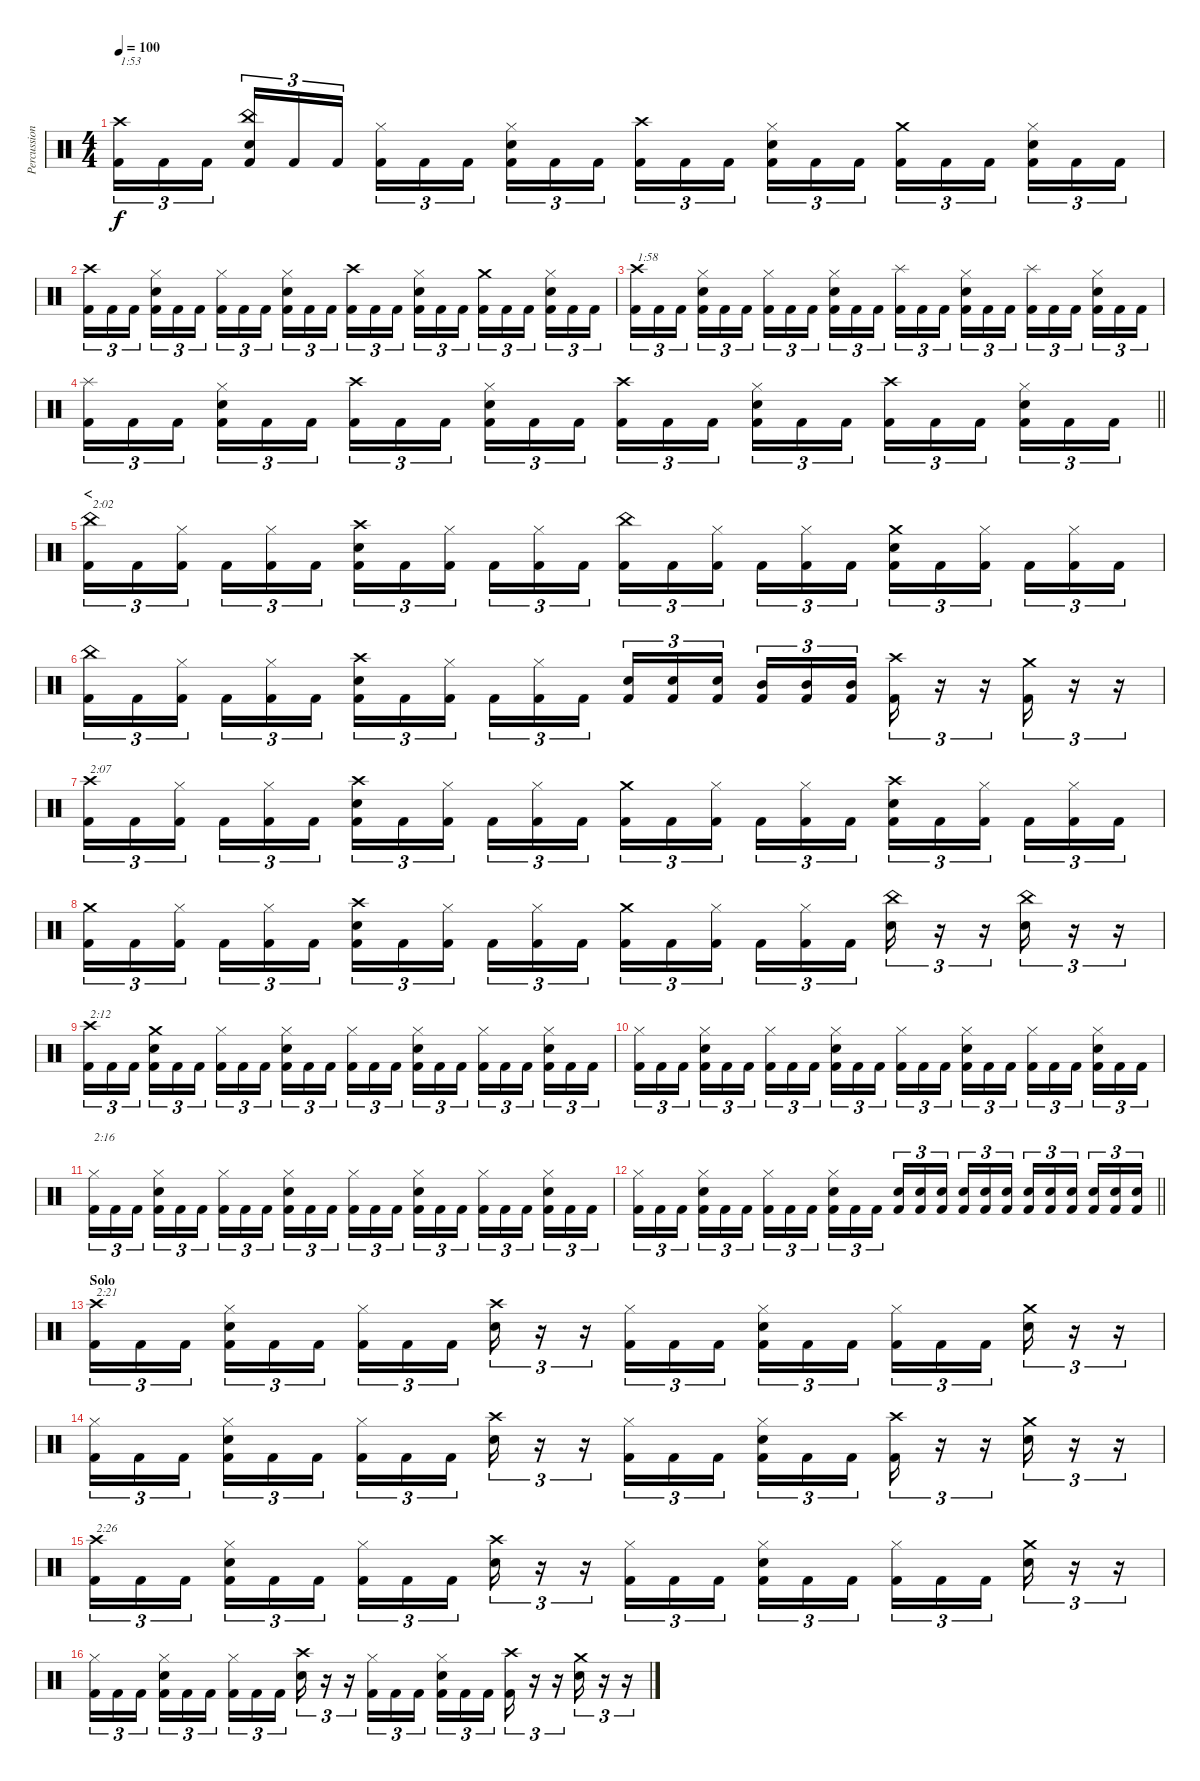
\track ("Percussion" "Percussion") {instrument percussion}
\staff {score}
\articulation defaults
\ts (4 4)
\tempo 100
\clef neutral
\ks c
("Crash high (hit)" "Kick (hit) 2").16{tu (3 2) txt "1:53" dy f} "Kick (hit) 2".16{tu (3 2)} "Kick (hit) 2".16{tu (3 2) beam splitsecondary} ("China (hit)" "Snare (hit) 2" "Kick (hit) 2").16{tu (3 2)} "Kick (hit) 2".16{tu (3 2)} "Kick (hit) 2".16{tu (3 2)} ("Hi-Hat (closed)" "Kick (hit) 2").16{tu (3 2)} "Kick (hit) 2".16{tu (3 2)} "Kick (hit) 2".16{tu (3 2) beam splitsecondary} ("Hi-Hat (closed)" "Snare (hit) 2" "Kick (hit) 2").16{tu (3 2)} "Kick (hit) 2".16{tu (3 2)} "Kick (hit) 2".16{tu (3 2)} ("Crash high (hit)" "Kick (hit) 2").16{tu (3 2)} "Kick (hit) 2".16{tu (3 2)} "Kick (hit) 2".16{tu (3 2) beam splitsecondary} ("Hi-Hat (closed)" "Snare (hit) 2" "Kick (hit) 2").16{tu (3 2)} "Kick (hit) 2".16{tu (3 2)} "Kick (hit) 2".16{tu (3 2)} ("Crash medium (hit)" "Kick (hit) 2").16{tu (3 2)} "Kick (hit) 2".16{tu (3 2)} "Kick (hit) 2".16{tu (3 2) beam splitsecondary} ("Hi-Hat (closed)" "Snare (hit) 2" "Kick (hit) 2").16{tu (3 2)} "Kick (hit) 2".16{tu (3 2)} "Kick (hit) 2".16{tu (3 2)} |
("Crash high (hit)" "Kick (hit) 2").16{tu (3 2)} "Kick (hit) 2".16{tu (3 2)} "Kick (hit) 2".16{tu (3 2) beam splitsecondary} ("Hi-Hat (closed)" "Snare (hit) 2" "Kick (hit) 2").16{tu (3 2)} "Kick (hit) 2".16{tu (3 2)} "Kick (hit) 2".16{tu (3 2)} ("Hi-Hat (closed)" "Kick (hit) 2").16{tu (3 2)} "Kick (hit) 2".16{tu (3 2)} "Kick (hit) 2".16{tu (3 2) beam splitsecondary} ("Hi-Hat (closed)" "Snare (hit) 2" "Kick (hit) 2").16{tu (3 2)} "Kick (hit) 2".16{tu (3 2)} "Kick (hit) 2".16{tu (3 2)} ("Crash high (hit)" "Kick (hit) 2").16{tu (3 2)} "Kick (hit) 2".16{tu (3 2)} "Kick (hit) 2".16{tu (3 2) beam splitsecondary} ("Hi-Hat (closed)" "Snare (hit) 2" "Kick (hit) 2").16{tu (3 2)} "Kick (hit) 2".16{tu (3 2)} "Kick (hit) 2".16{tu (3 2)} ("Crash medium (hit)" "Kick (hit) 2").16{tu (3 2)} "Kick (hit) 2".16{tu (3 2)} "Kick (hit) 2".16{tu (3 2) beam splitsecondary} ("Hi-Hat (closed)" "Snare (hit) 2" "Kick (hit) 2").16{tu (3 2)} "Kick (hit) 2".16{tu (3 2)} "Kick (hit) 2".16{tu (3 2)} |
("Crash high (hit)" "Kick (hit) 2").16{tu (3 2) txt "1:58"} "Kick (hit) 2".16{tu (3 2)} "Kick (hit) 2".16{tu (3 2) beam splitsecondary} ("Hi-Hat (closed)" "Snare (hit) 2" "Kick (hit) 2").16{tu (3 2)} "Kick (hit) 2".16{tu (3 2)} "Kick (hit) 2".16{tu (3 2)} ("Hi-Hat (closed)" "Kick (hit) 2").16{tu (3 2)} "Kick (hit) 2".16{tu (3 2)} "Kick (hit) 2".16{tu (3 2) beam splitsecondary} ("Hi-Hat (closed)" "Snare (hit) 2" "Kick (hit) 2").16{tu (3 2)} "Kick (hit) 2".16{tu (3 2)} "Kick (hit) 2".16{tu (3 2)} ("Splash (hit)" "Kick (hit) 2").16{tu (3 2)} "Kick (hit) 2".16{tu (3 2)} "Kick (hit) 2".16{tu (3 2) beam splitsecondary} ("Hi-Hat (closed)" "Snare (hit) 2" "Kick (hit) 2").16{tu (3 2)} "Kick (hit) 2".16{tu (3 2)} "Kick (hit) 2".16{tu (3 2)} ("Splash (hit)" "Kick (hit) 2").16{tu (3 2)} "Kick (hit) 2".16{tu (3 2)} "Kick (hit) 2".16{tu (3 2) beam splitsecondary} ("Hi-Hat (closed)" "Snare (hit) 2" "Kick (hit) 2").16{tu (3 2)} "Kick (hit) 2".16{tu (3 2)} "Kick (hit) 2".16{tu (3 2)} |
\barLineRight lightlight
("Splash (hit)" "Kick (hit) 2").16{tu (3 2)} "Kick (hit) 2".16{tu (3 2)} "Kick (hit) 2".16{tu (3 2) beam splitsecondary} ("Hi-Hat (closed)" "Snare (hit) 2" "Kick (hit) 2").16{tu (3 2)} "Kick (hit) 2".16{tu (3 2)} "Kick (hit) 2".16{tu (3 2)} ("Crash high (hit)" "Kick (hit) 2").16{tu (3 2)} "Kick (hit) 2".16{tu (3 2)} "Kick (hit) 2".16{tu (3 2) beam splitsecondary} ("Hi-Hat (closed)" "Snare (hit) 2" "Kick (hit) 2").16{tu (3 2)} "Kick (hit) 2".16{tu (3 2)} "Kick (hit) 2".16{tu (3 2)} ("Crash high (hit)" "Kick (hit) 2").16{tu (3 2)} "Kick (hit) 2".16{tu (3 2)} "Kick (hit) 2".16{tu (3 2) beam splitsecondary} ("Hi-Hat (closed)" "Snare (hit) 2" "Kick (hit) 2").16{tu (3 2)} "Kick (hit) 2".16{tu (3 2)} "Kick (hit) 2".16{tu (3 2)} ("Crash high (hit)" "Kick (hit) 2").16{tu (3 2)} "Kick (hit) 2".16{tu (3 2)} "Kick (hit) 2".16{tu (3 2) beam splitsecondary} ("Hi-Hat (closed)" "Snare (hit) 2" "Kick (hit) 2").16{tu (3 2)} "Kick (hit) 2".16{tu (3 2)} "Kick (hit) 2".16{tu (3 2)} |
\section ("" "<")
("China (hit)" "Kick (hit) 2").16{tu (3 2) txt "2:02"} "Kick (hit) 2".16{tu (3 2)} ("Hi-Hat (closed)" "Kick (hit) 2").16{tu (3 2) beam splitsecondary} "Kick (hit) 2".16{tu (3 2)} ("Hi-Hat (closed)" "Kick (hit) 2").16{tu (3 2)} "Kick (hit) 2".16{tu (3 2)} ("Crash high (hit)" "Snare (hit) 2" "Kick (hit) 2").16{tu (3 2)} "Kick (hit) 2".16{tu (3 2)} ("Hi-Hat (closed)" "Kick (hit) 2").16{tu (3 2) beam splitsecondary} "Kick (hit) 2".16{tu (3 2)} ("Hi-Hat (closed)" "Kick (hit) 2").16{tu (3 2)} "Kick (hit) 2".16{tu (3 2)} ("China (hit)" "Kick (hit) 2").16{tu (3 2)} "Kick (hit) 2".16{tu (3 2)} ("Hi-Hat (closed)" "Kick (hit) 2").16{tu (3 2) beam splitsecondary} "Kick (hit) 2".16{tu (3 2)} ("Hi-Hat (closed)" "Kick (hit) 2").16{tu (3 2)} "Kick (hit) 2".16{tu (3 2)} ("Crash medium (hit)" "Snare (hit) 2" "Kick (hit) 2").16{tu (3 2)} "Kick (hit) 2".16{tu (3 2)} ("Hi-Hat (closed)" "Kick (hit) 2").16{tu (3 2) beam splitsecondary} "Kick (hit) 2".16{tu (3 2)} ("Hi-Hat (closed)" "Kick (hit) 2").16{tu (3 2)} "Kick (hit) 2".16{tu (3 2)} |
("China (hit)" "Kick (hit) 2").16{tu (3 2)} "Kick (hit) 2".16{tu (3 2)} ("Hi-Hat (closed)" "Kick (hit) 2").16{tu (3 2) beam splitsecondary} "Kick (hit) 2".16{tu (3 2)} ("Hi-Hat (closed)" "Kick (hit) 2").16{tu (3 2)} "Kick (hit) 2".16{tu (3 2)} ("Crash high (hit)" "Snare (hit) 2" "Kick (hit) 2").16{tu (3 2)} "Kick (hit) 2".16{tu (3 2)} ("Hi-Hat (closed)" "Kick (hit) 2").16{tu (3 2) beam splitsecondary} "Kick (hit) 2".16{tu (3 2)} ("Hi-Hat (closed)" "Kick (hit) 2").16{tu (3 2)} "Kick (hit) 2".16{tu (3 2)} ("Snare (hit) 2" "Kick (hit) 2").16{tu (3 2)} ("Snare (hit) 2" "Kick (hit) 2").16{tu (3 2)} ("Snare (hit) 2" "Kick (hit) 2").16{tu (3 2) beam splitsecondary} ("Mid Tom (hit)" "Kick (hit) 2").16{tu (3 2)} ("Mid Tom (hit)" "Kick (hit) 2").16{tu (3 2)} ("Mid Tom (hit)" "Kick (hit) 2").16{tu (3 2)} ("Crash high (hit)" "Kick (hit) 2").16{tu (3 2)} r.16{tu (3 2)} r.16{tu (3 2)} ("Crash medium (hit)" "Kick (hit) 2").16{tu (3 2)} r.16{tu (3 2)} r.16{tu (3 2)} |
("Crash high (hit)" "Kick (hit) 2").16{tu (3 2) txt "2:07"} "Kick (hit) 2".16{tu (3 2)} ("Hi-Hat (closed)" "Kick (hit) 2").16{tu (3 2) beam splitsecondary} "Kick (hit) 2".16{tu (3 2)} ("Hi-Hat (closed)" "Kick (hit) 2").16{tu (3 2)} "Kick (hit) 2".16{tu (3 2)} ("Crash high (hit)" "Snare (hit) 2" "Kick (hit) 2").16{tu (3 2)} "Kick (hit) 2".16{tu (3 2)} ("Hi-Hat (closed)" "Kick (hit) 2").16{tu (3 2) beam splitsecondary} "Kick (hit) 2".16{tu (3 2)} ("Hi-Hat (closed)" "Kick (hit) 2").16{tu (3 2)} "Kick (hit) 2".16{tu (3 2)} ("Crash medium (hit)" "Kick (hit) 2").16{tu (3 2)} "Kick (hit) 2".16{tu (3 2)} ("Hi-Hat (closed)" "Kick (hit) 2").16{tu (3 2) beam splitsecondary} "Kick (hit) 2".16{tu (3 2)} ("Hi-Hat (closed)" "Kick (hit) 2").16{tu (3 2)} "Kick (hit) 2".16{tu (3 2)} ("Crash high (hit)" "Snare (hit) 2" "Kick (hit) 2").16{tu (3 2)} "Kick (hit) 2".16{tu (3 2)} ("Hi-Hat (closed)" "Kick (hit) 2").16{tu (3 2) beam splitsecondary} "Kick (hit) 2".16{tu (3 2)} ("Hi-Hat (closed)" "Kick (hit) 2").16{tu (3 2)} "Kick (hit) 2".16{tu (3 2)} |
("Crash medium (hit)" "Kick (hit) 2").16{tu (3 2)} "Kick (hit) 2".16{tu (3 2)} ("Hi-Hat (closed)" "Kick (hit) 2").16{tu (3 2) beam splitsecondary} "Kick (hit) 2".16{tu (3 2)} ("Hi-Hat (closed)" "Kick (hit) 2").16{tu (3 2)} "Kick (hit) 2".16{tu (3 2)} ("Crash high (hit)" "Snare (hit) 2" "Kick (hit) 2").16{tu (3 2)} "Kick (hit) 2".16{tu (3 2)} ("Hi-Hat (closed)" "Kick (hit) 2").16{tu (3 2) beam splitsecondary} "Kick (hit) 2".16{tu (3 2)} ("Hi-Hat (closed)" "Kick (hit) 2").16{tu (3 2)} "Kick (hit) 2".16{tu (3 2)} ("Crash medium (hit)" "Kick (hit) 2").16{tu (3 2)} "Kick (hit) 2".16{tu (3 2)} ("Hi-Hat (closed)" "Kick (hit) 2").16{tu (3 2) beam splitsecondary} "Kick (hit) 2".16{tu (3 2)} ("Hi-Hat (closed)" "Kick (hit) 2").16{tu (3 2)} "Kick (hit) 2".16{tu (3 2)} ("China (hit)" "Snare (hit) 2").16{tu (3 2)} r.16{tu (3 2)} r.16{tu (3 2)} ("China (hit)" "Snare (hit) 2").16{tu (3 2)} r.16{tu (3 2)} r.16{tu (3 2)} |
("Crash high (hit)" "Kick (hit) 2").16{tu (3 2) txt "2:12"} "Kick (hit) 2".16{tu (3 2)} "Kick (hit) 2".16{tu (3 2) beam splitsecondary} ("Crash medium (hit)" "Snare (hit) 2" "Kick (hit) 2").16{tu (3 2)} "Kick (hit) 2".16{tu (3 2)} "Kick (hit) 2".16{tu (3 2)} ("Hi-Hat (closed)" "Kick (hit) 2").16{tu (3 2)} "Kick (hit) 2".16{tu (3 2)} "Kick (hit) 2".16{tu (3 2) beam splitsecondary} ("Hi-Hat (closed)" "Snare (hit) 2" "Kick (hit) 2").16{tu (3 2)} "Kick (hit) 2".16{tu (3 2)} "Kick (hit) 2".16{tu (3 2)} ("Hi-Hat (closed)" "Kick (hit) 2").16{tu (3 2)} "Kick (hit) 2".16{tu (3 2)} "Kick (hit) 2".16{tu (3 2) beam splitsecondary} ("Hi-Hat (closed)" "Snare (hit) 2" "Kick (hit) 2").16{tu (3 2)} "Kick (hit) 2".16{tu (3 2)} "Kick (hit) 2".16{tu (3 2)} ("Hi-Hat (closed)" "Kick (hit) 2").16{tu (3 2)} "Kick (hit) 2".16{tu (3 2)} "Kick (hit) 2".16{tu (3 2) beam splitsecondary} ("Hi-Hat (closed)" "Snare (hit) 2" "Kick (hit) 2").16{tu (3 2)} "Kick (hit) 2".16{tu (3 2)} "Kick (hit) 2".16{tu (3 2)} |
("Hi-Hat (closed)" "Kick (hit) 2").16{tu (3 2)} "Kick (hit) 2".16{tu (3 2)} "Kick (hit) 2".16{tu (3 2) beam splitsecondary} ("Hi-Hat (closed)" "Snare (hit) 2" "Kick (hit) 2").16{tu (3 2)} "Kick (hit) 2".16{tu (3 2)} "Kick (hit) 2".16{tu (3 2)} ("Hi-Hat (closed)" "Kick (hit) 2").16{tu (3 2)} "Kick (hit) 2".16{tu (3 2)} "Kick (hit) 2".16{tu (3 2) beam splitsecondary} ("Hi-Hat (closed)" "Snare (hit) 2" "Kick (hit) 2").16{tu (3 2)} "Kick (hit) 2".16{tu (3 2)} "Kick (hit) 2".16{tu (3 2)} ("Hi-Hat (closed)" "Kick (hit) 2").16{tu (3 2)} "Kick (hit) 2".16{tu (3 2)} "Kick (hit) 2".16{tu (3 2) beam splitsecondary} ("Hi-Hat (closed)" "Snare (hit) 2" "Kick (hit) 2").16{tu (3 2)} "Kick (hit) 2".16{tu (3 2)} "Kick (hit) 2".16{tu (3 2)} ("Hi-Hat (closed)" "Kick (hit) 2").16{tu (3 2)} "Kick (hit) 2".16{tu (3 2)} "Kick (hit) 2".16{tu (3 2) beam splitsecondary} ("Hi-Hat (closed)" "Snare (hit) 2" "Kick (hit) 2").16{tu (3 2)} "Kick (hit) 2".16{tu (3 2)} "Kick (hit) 2".16{tu (3 2)} |
("Hi-Hat (closed)" "Kick (hit) 2").16{tu (3 2) txt "2:16"} "Kick (hit) 2".16{tu (3 2)} "Kick (hit) 2".16{tu (3 2) beam splitsecondary} ("Hi-Hat (closed)" "Snare (hit) 2" "Kick (hit) 2").16{tu (3 2)} "Kick (hit) 2".16{tu (3 2)} "Kick (hit) 2".16{tu (3 2)} ("Hi-Hat (closed)" "Kick (hit) 2").16{tu (3 2)} "Kick (hit) 2".16{tu (3 2)} "Kick (hit) 2".16{tu (3 2) beam splitsecondary} ("Hi-Hat (closed)" "Snare (hit) 2" "Kick (hit) 2").16{tu (3 2)} "Kick (hit) 2".16{tu (3 2)} "Kick (hit) 2".16{tu (3 2)} ("Hi-Hat (closed)" "Kick (hit) 2").16{tu (3 2)} "Kick (hit) 2".16{tu (3 2)} "Kick (hit) 2".16{tu (3 2) beam splitsecondary} ("Hi-Hat (closed)" "Snare (hit) 2" "Kick (hit) 2").16{tu (3 2)} "Kick (hit) 2".16{tu (3 2)} "Kick (hit) 2".16{tu (3 2)} ("Hi-Hat (closed)" "Kick (hit) 2").16{tu (3 2)} "Kick (hit) 2".16{tu (3 2)} "Kick (hit) 2".16{tu (3 2) beam splitsecondary} ("Hi-Hat (closed)" "Snare (hit) 2" "Kick (hit) 2").16{tu (3 2)} "Kick (hit) 2".16{tu (3 2)} "Kick (hit) 2".16{tu (3 2)} |
\barLineRight lightlight
("Hi-Hat (closed)" "Kick (hit) 2").16{tu (3 2)} "Kick (hit) 2".16{tu (3 2)} "Kick (hit) 2".16{tu (3 2) beam splitsecondary} ("Hi-Hat (closed)" "Snare (hit) 2" "Kick (hit) 2").16{tu (3 2)} "Kick (hit) 2".16{tu (3 2)} "Kick (hit) 2".16{tu (3 2)} ("Hi-Hat (closed)" "Kick (hit) 2").16{tu (3 2)} "Kick (hit) 2".16{tu (3 2)} "Kick (hit) 2".16{tu (3 2) beam splitsecondary} ("Hi-Hat (closed)" "Snare (hit) 2" "Kick (hit) 2").16{tu (3 2)} "Kick (hit) 2".16{tu (3 2)} "Kick (hit) 2".16{tu (3 2)} ("Snare (hit) 2" "Kick (hit) 2").16{tu (3 2)} ("Snare (hit) 2" "Kick (hit) 2").16{tu (3 2)} ("Snare (hit) 2" "Kick (hit) 2").16{tu (3 2) beam splitsecondary} ("Snare (hit) 2" "Kick (hit) 2").16{tu (3 2)} ("Snare (hit) 2" "Kick (hit) 2").16{tu (3 2)} ("Snare (hit) 2" "Kick (hit) 2").16{tu (3 2)} ("Snare (hit) 2" "Kick (hit) 2").16{tu (3 2)} ("Snare (hit) 2" "Kick (hit) 2").16{tu (3 2)} ("Snare (hit) 2" "Kick (hit) 2").16{tu (3 2) beam splitsecondary} ("Snare (hit) 2" "Kick (hit) 2").16{tu (3 2)} ("Snare (hit) 2" "Kick (hit) 2").16{tu (3 2)} ("Snare (hit) 2" "Kick (hit) 2").16{tu (3 2)} |
\section ("" "Solo")
("Crash high (hit)" "Kick (hit) 2").16{tu (3 2) txt "2:21"} "Kick (hit) 2".16{tu (3 2)} "Kick (hit) 2".16{tu (3 2) beam splitsecondary} ("Hi-Hat (closed)" "Snare (hit) 2" "Kick (hit) 2").16{tu (3 2)} "Kick (hit) 2".16{tu (3 2)} "Kick (hit) 2".16{tu (3 2)} ("Hi-Hat (closed)" "Kick (hit) 2").16{tu (3 2)} "Kick (hit) 2".16{tu (3 2)} "Kick (hit) 2".16{tu (3 2) beam splitsecondary} ("Crash high (hit)" "Snare (hit) 2").16{tu (3 2)} r.16{tu (3 2)} r.16{tu (3 2)} ("Hi-Hat (closed)" "Kick (hit) 2").16{tu (3 2)} "Kick (hit) 2".16{tu (3 2)} "Kick (hit) 2".16{tu (3 2) beam splitsecondary} ("Hi-Hat (closed)" "Snare (hit) 2" "Kick (hit) 2").16{tu (3 2)} "Kick (hit) 2".16{tu (3 2)} "Kick (hit) 2".16{tu (3 2)} ("Hi-Hat (closed)" "Kick (hit) 2").16{tu (3 2)} "Kick (hit) 2".16{tu (3 2)} "Kick (hit) 2".16{tu (3 2) beam splitsecondary} ("Crash medium (hit)" "Snare (hit) 2").16{tu (3 2)} r.16{tu (3 2)} r.16{tu (3 2)} |
("Hi-Hat (closed)" "Kick (hit) 2").16{tu (3 2)} "Kick (hit) 2".16{tu (3 2)} "Kick (hit) 2".16{tu (3 2) beam splitsecondary} ("Hi-Hat (closed)" "Snare (hit) 2" "Kick (hit) 2").16{tu (3 2)} "Kick (hit) 2".16{tu (3 2)} "Kick (hit) 2".16{tu (3 2)} ("Hi-Hat (closed)" "Kick (hit) 2").16{tu (3 2)} "Kick (hit) 2".16{tu (3 2)} "Kick (hit) 2".16{tu (3 2) beam splitsecondary} ("Crash high (hit)" "Snare (hit) 2").16{tu (3 2)} r.16{tu (3 2)} r.16{tu (3 2)} ("Hi-Hat (closed)" "Kick (hit) 2").16{tu (3 2)} "Kick (hit) 2".16{tu (3 2)} "Kick (hit) 2".16{tu (3 2) beam splitsecondary} ("Hi-Hat (closed)" "Snare (hit) 2" "Kick (hit) 2").16{tu (3 2)} "Kick (hit) 2".16{tu (3 2)} "Kick (hit) 2".16{tu (3 2)} ("Crash high (hit)" "Kick (hit) 2").16{tu (3 2)} r.16{tu (3 2)} r.16{tu (3 2)} ("Crash medium (hit)" "Snare (hit) 2").16{tu (3 2)} r.16{tu (3 2)} r.16{tu (3 2)} |
("Crash high (hit)" "Kick (hit) 2").16{tu (3 2) txt "2:26"} "Kick (hit) 2".16{tu (3 2)} "Kick (hit) 2".16{tu (3 2) beam splitsecondary} ("Hi-Hat (closed)" "Snare (hit) 2" "Kick (hit) 2").16{tu (3 2)} "Kick (hit) 2".16{tu (3 2)} "Kick (hit) 2".16{tu (3 2)} ("Hi-Hat (closed)" "Kick (hit) 2").16{tu (3 2)} "Kick (hit) 2".16{tu (3 2)} "Kick (hit) 2".16{tu (3 2) beam splitsecondary} ("Crash high (hit)" "Snare (hit) 2").16{tu (3 2)} r.16{tu (3 2)} r.16{tu (3 2)} ("Hi-Hat (closed)" "Kick (hit) 2").16{tu (3 2)} "Kick (hit) 2".16{tu (3 2)} "Kick (hit) 2".16{tu (3 2) beam splitsecondary} ("Hi-Hat (closed)" "Snare (hit) 2" "Kick (hit) 2").16{tu (3 2)} "Kick (hit) 2".16{tu (3 2)} "Kick (hit) 2".16{tu (3 2)} ("Hi-Hat (closed)" "Kick (hit) 2").16{tu (3 2)} "Kick (hit) 2".16{tu (3 2)} "Kick (hit) 2".16{tu (3 2) beam splitsecondary} ("Crash medium (hit)" "Snare (hit) 2").16{tu (3 2)} r.16{tu (3 2)} r.16{tu (3 2)} |
("Hi-Hat (closed)" "Kick (hit) 2").16{tu (3 2)} "Kick (hit) 2".16{tu (3 2)} "Kick (hit) 2".16{tu (3 2) beam splitsecondary} ("Hi-Hat (closed)" "Snare (hit) 2" "Kick (hit) 2").16{tu (3 2)} "Kick (hit) 2".16{tu (3 2)} "Kick (hit) 2".16{tu (3 2)} ("Hi-Hat (closed)" "Kick (hit) 2").16{tu (3 2)} "Kick (hit) 2".16{tu (3 2)} "Kick (hit) 2".16{tu (3 2) beam splitsecondary} ("Crash high (hit)" "Snare (hit) 2").16{tu (3 2)} r.16{tu (3 2)} r.16{tu (3 2)} ("Hi-Hat (closed)" "Kick (hit) 2").16{tu (3 2)} "Kick (hit) 2".16{tu (3 2)} "Kick (hit) 2".16{tu (3 2) beam splitsecondary} ("Hi-Hat (closed)" "Snare (hit) 2" "Kick (hit) 2").16{tu (3 2)} "Kick (hit) 2".16{tu (3 2)} "Kick (hit) 2".16{tu (3 2)} ("Crash high (hit)" "Kick (hit) 2").16{tu (3 2)} r.16{tu (3 2)} r.16{tu (3 2)} ("Crash medium (hit)" "Snare (hit) 2").16{tu (3 2)} r.16{tu (3 2)} r.16{tu (3 2)}
